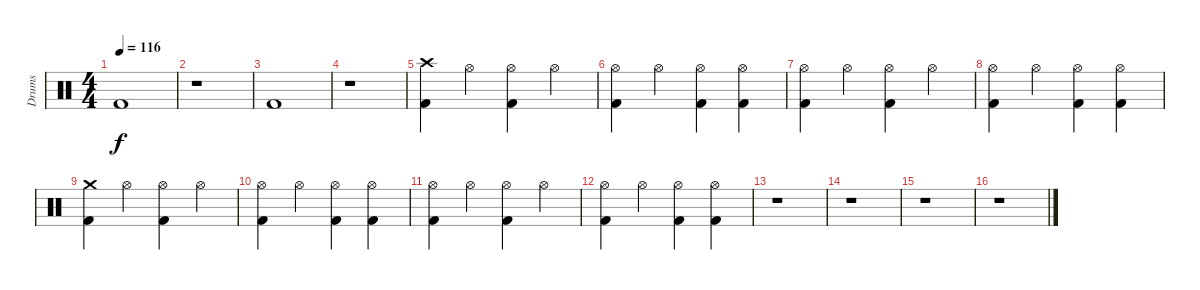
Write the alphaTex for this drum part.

\track ("Drums" "Drums") {instrument percussion}
\staff {score}
\articulation defaults
\ts (4 4)
\tempo 116
\clef neutral
\ks c "Kick (hit) 2".1{dy f}
|
r.1 |
"Kick (hit) 2".1 |
r.1 |
("Kick (hit) 2" "Crash high (hit)").4{volume 13} "Hi-Hat (open)".4 ("Kick (hit) 2" "Hi-Hat (open)").4 "Hi-Hat (open)".4 |
("Kick (hit) 2" "Hi-Hat (open)").4 "Hi-Hat (open)".4 ("Kick (hit) 2" "Hi-Hat (open)").4 ("Kick (hit) 2" "Hi-Hat (open)").4 |
("Kick (hit) 2" "Hi-Hat (open)").4 "Hi-Hat (open)".4 ("Kick (hit) 2" "Hi-Hat (open)").4 "Hi-Hat (open)".4 |
("Kick (hit) 2" "Hi-Hat (open)").4 "Hi-Hat (open)".4 ("Kick (hit) 2" "Hi-Hat (open)").4 ("Kick (hit) 2" "Hi-Hat (open)").4 |
("Kick (hit) 2" "Crash medium (hit)").4 "Hi-Hat (open)".4 ("Kick (hit) 2" "Hi-Hat (open)").4 "Hi-Hat (open)".4 |
("Kick (hit) 2" "Hi-Hat (open)").4 "Hi-Hat (open)".4 ("Kick (hit) 2" "Hi-Hat (open)").4 ("Kick (hit) 2" "Hi-Hat (open)").4 |
("Kick (hit) 2" "Hi-Hat (open)").4 "Hi-Hat (open)".4 ("Kick (hit) 2" "Hi-Hat (open)").4 "Hi-Hat (open)".4 |
("Kick (hit) 2" "Hi-Hat (open)").4 "Hi-Hat (open)".4 ("Kick (hit) 2" "Hi-Hat (open)").4 ("Kick (hit) 2" "Hi-Hat (open)").4 |
r.1 |
r.1 |
r.1 |
r.1
